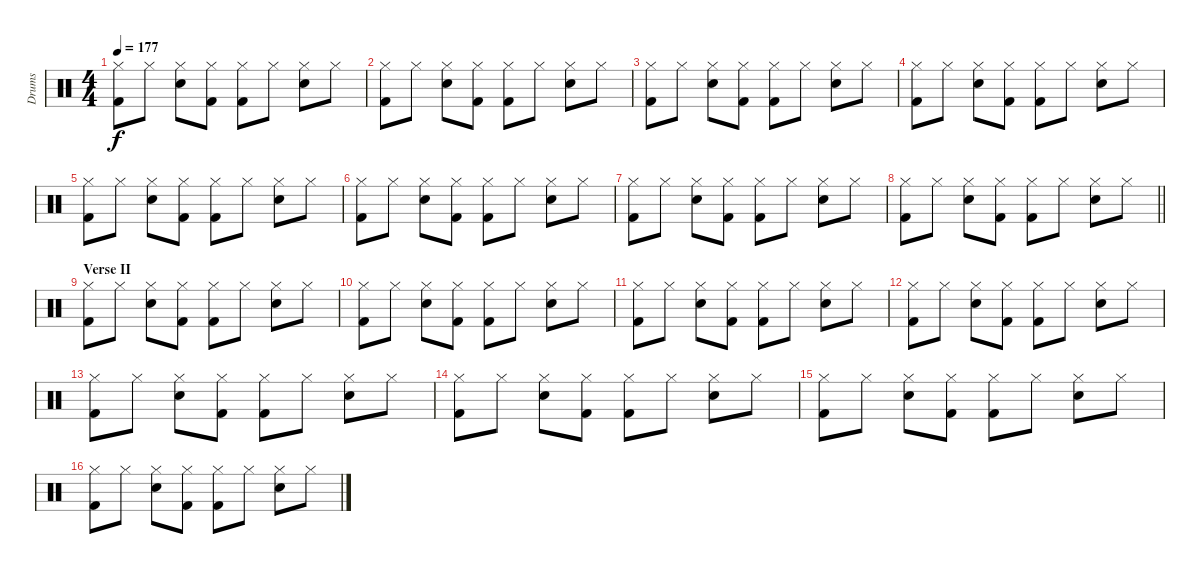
\track ("Drums" "Drums") {instrument percussion}
\staff {score}
\articulation defaults
\ts (4 4)
\tempo 177
\clef neutral
\ks c
("Hi-Hat (closed)" "Kick (hit) 2").8{dy f} "Hi-Hat (closed)".8 ("Hi-Hat (closed)" "Snare (hit) 2").8 ("Hi-Hat (closed)" "Kick (hit) 2").8 ("Hi-Hat (closed)" "Kick (hit) 2").8 "Hi-Hat (closed)".8 ("Hi-Hat (closed)" "Snare (hit) 2").8 "Hi-Hat (closed)".8 |
("Hi-Hat (closed)" "Kick (hit) 2").8 "Hi-Hat (closed)".8 ("Hi-Hat (closed)" "Snare (hit) 2").8 ("Hi-Hat (closed)" "Kick (hit) 2").8 ("Hi-Hat (closed)" "Kick (hit) 2").8 "Hi-Hat (closed)".8 ("Hi-Hat (closed)" "Snare (hit) 2").8 "Hi-Hat (closed)".8 |
("Hi-Hat (closed)" "Kick (hit) 2").8 "Hi-Hat (closed)".8 ("Hi-Hat (closed)" "Snare (hit) 2").8 ("Hi-Hat (closed)" "Kick (hit) 2").8 ("Hi-Hat (closed)" "Kick (hit) 2").8 "Hi-Hat (closed)".8 ("Hi-Hat (closed)" "Snare (hit) 2").8 "Hi-Hat (closed)".8 |
("Hi-Hat (closed)" "Kick (hit) 2").8 "Hi-Hat (closed)".8 ("Hi-Hat (closed)" "Snare (hit) 2").8 ("Hi-Hat (closed)" "Kick (hit) 2").8 ("Hi-Hat (closed)" "Kick (hit) 2").8 "Hi-Hat (closed)".8 ("Hi-Hat (closed)" "Snare (hit) 2").8 "Hi-Hat (closed)".8 |
("Hi-Hat (closed)" "Kick (hit) 2").8 "Hi-Hat (closed)".8 ("Hi-Hat (closed)" "Snare (hit) 2").8 ("Hi-Hat (closed)" "Kick (hit) 2").8 ("Hi-Hat (closed)" "Kick (hit) 2").8 "Hi-Hat (closed)".8 ("Hi-Hat (closed)" "Snare (hit) 2").8 "Hi-Hat (closed)".8 |
("Hi-Hat (closed)" "Kick (hit) 2").8 "Hi-Hat (closed)".8 ("Hi-Hat (closed)" "Snare (hit) 2").8 ("Hi-Hat (closed)" "Kick (hit) 2").8 ("Hi-Hat (closed)" "Kick (hit) 2").8 "Hi-Hat (closed)".8 ("Hi-Hat (closed)" "Snare (hit) 2").8 "Hi-Hat (closed)".8 |
("Hi-Hat (closed)" "Kick (hit) 2").8 "Hi-Hat (closed)".8 ("Hi-Hat (closed)" "Snare (hit) 2").8 ("Hi-Hat (closed)" "Kick (hit) 2").8 ("Hi-Hat (closed)" "Kick (hit) 2").8 "Hi-Hat (closed)".8 ("Hi-Hat (closed)" "Snare (hit) 2").8 "Hi-Hat (closed)".8 |
\barLineRight lightlight
("Hi-Hat (closed)" "Kick (hit) 2").8 "Hi-Hat (closed)".8 ("Hi-Hat (closed)" "Snare (hit) 2").8 ("Hi-Hat (closed)" "Kick (hit) 2").8 ("Hi-Hat (closed)" "Kick (hit) 2").8 "Hi-Hat (closed)".8 ("Hi-Hat (closed)" "Snare (hit) 2").8 "Hi-Hat (closed)".8 |
\section ("" "Verse II")
("Hi-Hat (closed)" "Kick (hit) 2").8 "Hi-Hat (closed)".8 ("Hi-Hat (closed)" "Snare (hit) 2").8 ("Hi-Hat (closed)" "Kick (hit) 2").8 ("Hi-Hat (closed)" "Kick (hit) 2").8 "Hi-Hat (closed)".8 ("Hi-Hat (closed)" "Snare (hit) 2").8 "Hi-Hat (closed)".8 |
("Hi-Hat (closed)" "Kick (hit) 2").8 "Hi-Hat (closed)".8 ("Hi-Hat (closed)" "Snare (hit) 2").8 ("Hi-Hat (closed)" "Kick (hit) 2").8 ("Hi-Hat (closed)" "Kick (hit) 2").8 "Hi-Hat (closed)".8 ("Hi-Hat (closed)" "Snare (hit) 2").8 "Hi-Hat (closed)".8 |
("Hi-Hat (closed)" "Kick (hit) 2").8 "Hi-Hat (closed)".8 ("Hi-Hat (closed)" "Snare (hit) 2").8 ("Hi-Hat (closed)" "Kick (hit) 2").8 ("Hi-Hat (closed)" "Kick (hit) 2").8 "Hi-Hat (closed)".8 ("Hi-Hat (closed)" "Snare (hit) 2").8 "Hi-Hat (closed)".8 |
("Hi-Hat (closed)" "Kick (hit) 2").8 "Hi-Hat (closed)".8 ("Hi-Hat (closed)" "Snare (hit) 2").8 ("Hi-Hat (closed)" "Kick (hit) 2").8 ("Hi-Hat (closed)" "Kick (hit) 2").8 "Hi-Hat (closed)".8 ("Hi-Hat (closed)" "Snare (hit) 2").8 "Hi-Hat (closed)".8 |
("Hi-Hat (closed)" "Kick (hit) 2").8 "Hi-Hat (closed)".8 ("Hi-Hat (closed)" "Snare (hit) 2").8 ("Hi-Hat (closed)" "Kick (hit) 2").8 ("Hi-Hat (closed)" "Kick (hit) 2").8 "Hi-Hat (closed)".8 ("Hi-Hat (closed)" "Snare (hit) 2").8 "Hi-Hat (closed)".8 |
("Hi-Hat (closed)" "Kick (hit) 2").8 "Hi-Hat (closed)".8 ("Hi-Hat (closed)" "Snare (hit) 2").8 ("Hi-Hat (closed)" "Kick (hit) 2").8 ("Hi-Hat (closed)" "Kick (hit) 2").8 "Hi-Hat (closed)".8 ("Hi-Hat (closed)" "Snare (hit) 2").8 "Hi-Hat (closed)".8 |
("Hi-Hat (closed)" "Kick (hit) 2").8 "Hi-Hat (closed)".8 ("Hi-Hat (closed)" "Snare (hit) 2").8 ("Hi-Hat (closed)" "Kick (hit) 2").8 ("Hi-Hat (closed)" "Kick (hit) 2").8 "Hi-Hat (closed)".8 ("Hi-Hat (closed)" "Snare (hit) 2").8 "Hi-Hat (closed)".8 |
("Hi-Hat (closed)" "Kick (hit) 2").8 "Hi-Hat (closed)".8 ("Hi-Hat (closed)" "Snare (hit) 2").8 ("Hi-Hat (closed)" "Kick (hit) 2").8 ("Hi-Hat (closed)" "Kick (hit) 2").8 "Hi-Hat (closed)".8 ("Hi-Hat (closed)" "Snare (hit) 2").8 "Hi-Hat (closed)".8
